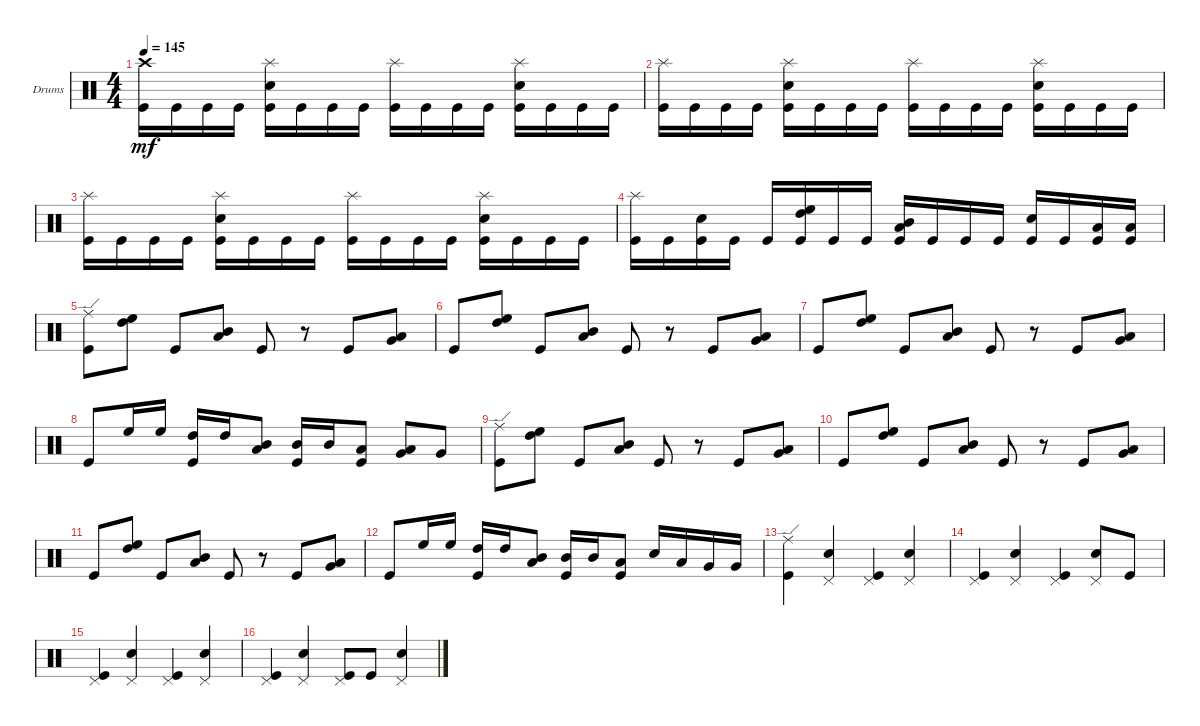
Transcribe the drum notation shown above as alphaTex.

\bracketExtendMode groupsimilarinstruments
\firstSystemTrackNameOrientation horizontal
\otherSystemsTrackNameOrientation horizontal
\track ("Drumkit" "Drums") {instrument percussion}
\staff {score}
\articulation defaults
\ts (4 4)
\tempo 145
\clef neutral
\ks c
("Kick (hit)" "Crash high (hit)").16{dy mf} "Kick (hit)".16 "Kick (hit)".16 "Kick (hit)".16 ("Kick (hit)" "Snare (hit) 2" "Splash (hit)").16 "Kick (hit)".16 "Kick (hit)".16 "Kick (hit)".16 ("Kick (hit)" "Splash (hit)").16 "Kick (hit)".16 "Kick (hit)".16 "Kick (hit)".16 ("Kick (hit)" "Snare (hit) 2" "Splash (hit)").16 "Kick (hit)".16 "Kick (hit)".16 "Kick (hit)".16 |
("Kick (hit)" "Splash (hit)").16 "Kick (hit)".16 "Kick (hit)".16 "Kick (hit)".16 ("Kick (hit)" "Snare (hit) 2" "Splash (hit)").16 "Kick (hit)".16 "Kick (hit)".16 "Kick (hit)".16 ("Kick (hit)" "Splash (hit)").16 "Kick (hit)".16 "Kick (hit)".16 "Kick (hit)".16 ("Kick (hit)" "Snare (hit) 2" "Splash (hit)").16 "Kick (hit)".16 "Kick (hit)".16 "Kick (hit)".16 |
("Kick (hit)" "Splash (hit)").16 "Kick (hit)".16 "Kick (hit)".16 "Kick (hit)".16 ("Kick (hit)" "Snare (hit) 2" "Splash (hit)").16 "Kick (hit)".16 "Kick (hit)".16 "Kick (hit)".16 ("Kick (hit)" "Splash (hit)").16 "Kick (hit)".16 "Kick (hit)".16 "Kick (hit)".16 ("Kick (hit)" "Snare (hit) 2" "Splash (hit)").16 "Kick (hit)".16 "Kick (hit)".16 "Kick (hit)".16 |
("Kick (hit)" "Splash (hit)").16 "Kick (hit)".16 ("Snare (hit) 2" "Kick (hit)").16 "Kick (hit)".16 "Kick (hit)".16 ("High Tom (hit)" "High Floor Tom (hit)" "Kick (hit)").16 "Kick (hit)".16 "Kick (hit)".16 ("Mid Tom (hit)" "Low Tom (hit)" "Kick (hit)").16 "Kick (hit)".16 "Kick (hit)".16 "Kick (hit)".16 ("Snare (hit) 2" "Kick (hit)").16 "Kick (hit)".16 ("Low Tom (hit)" "Kick (hit)").16 ("Low Tom (hit)" "Kick (hit)").16 |
("Kick (hit)" "Ride (edge)").8 ("High Tom (hit)" "High Floor Tom (hit)").8 "Kick (hit)".8 ("Mid Tom (hit)" "Low Tom (hit)").8 "Kick (hit)".8 r.8 "Kick (hit)".8 ("Low Tom (hit)" "Very Low Tom (hit)").8 |
"Kick (hit)".8 ("High Tom (hit)" "High Floor Tom (hit)").8 "Kick (hit)".8 ("Mid Tom (hit)" "Low Tom (hit)").8 "Kick (hit)".8 r.8 "Kick (hit)".8 ("Low Tom (hit)" "Very Low Tom (hit)").8 |
"Kick (hit)".8 ("High Tom (hit)" "High Floor Tom (hit)").8 "Kick (hit)".8 ("Mid Tom (hit)" "Low Tom (hit)").8 "Kick (hit)".8 r.8 "Kick (hit)".8 ("Low Tom (hit)" "Very Low Tom (hit)").8 |
"Kick (hit)".8 "High Floor Tom (hit)".16 "High Floor Tom (hit)".16 ("Kick (hit)" "High Tom (hit)").16 "High Tom (hit)".16 ("Mid Tom (hit)" "Low Tom (hit)").8 ("Kick (hit)" "Mid Tom (hit)").16 "Mid Tom (hit)".16 ("Kick (hit)" "Low Tom (hit)").8 ("Low Tom (hit)" "Very Low Tom (hit)").8 "Very Low Tom (hit)".8 |
("Kick (hit)" "Ride (edge)").8 ("High Tom (hit)" "High Floor Tom (hit)").8 "Kick (hit)".8 ("Mid Tom (hit)" "Low Tom (hit)").8 "Kick (hit)".8 r.8 "Kick (hit)".8 ("Low Tom (hit)" "Very Low Tom (hit)").8 |
"Kick (hit)".8 ("High Tom (hit)" "High Floor Tom (hit)").8 "Kick (hit)".8 ("Mid Tom (hit)" "Low Tom (hit)").8 "Kick (hit)".8 r.8 "Kick (hit)".8 ("Low Tom (hit)" "Very Low Tom (hit)").8 |
"Kick (hit)".8 ("High Tom (hit)" "High Floor Tom (hit)").8 "Kick (hit)".8 ("Mid Tom (hit)" "Low Tom (hit)").8 "Kick (hit)".8 r.8 "Kick (hit)".8 ("Low Tom (hit)" "Very Low Tom (hit)").8 |
"Kick (hit)".8 "High Floor Tom (hit)".16 "High Floor Tom (hit)".16 ("Kick (hit)" "High Tom (hit)").16 "High Tom (hit)".16 ("Mid Tom (hit)" "Low Tom (hit)").8 ("Kick (hit)" "Mid Tom (hit)").16 "Mid Tom (hit)".16 ("Kick (hit)" "Low Tom (hit)").8 "Snare (hit) 2".16 "Low Tom (hit)".16 "Very Low Tom (hit)".16 "Very Low Tom (hit)".16 |
("Kick (hit)" "Ride (edge)").4 ("Pedal Hi-Hat (hit)" "Snare (hit) 2").4 ("Kick (hit)" "Pedal Hi-Hat (hit)").4 ("Snare (hit) 2" "Pedal Hi-Hat (hit)").4 |
("Kick (hit)" "Pedal Hi-Hat (hit)").4 ("Pedal Hi-Hat (hit)" "Snare (hit) 2").4 ("Kick (hit)" "Pedal Hi-Hat (hit)").4 ("Snare (hit) 2" "Pedal Hi-Hat (hit)").8 "Kick (hit)".8 |
("Kick (hit)" "Pedal Hi-Hat (hit)").4 ("Pedal Hi-Hat (hit)" "Snare (hit) 2").4 ("Kick (hit)" "Pedal Hi-Hat (hit)").4 ("Snare (hit) 2" "Pedal Hi-Hat (hit)").4 |
("Kick (hit)" "Pedal Hi-Hat (hit)").4 ("Pedal Hi-Hat (hit)" "Snare (hit) 2").4 ("Kick (hit)" "Pedal Hi-Hat (hit)").8 "Kick (hit)".8 ("Snare (hit) 2" "Pedal Hi-Hat (hit)").4
